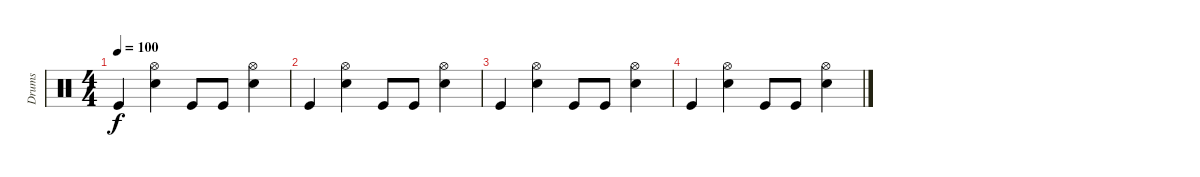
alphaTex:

\track ("Drums" "Drums") {instrument percussion}
\staff {score}
\articulation defaults
\ts (4 4)
\tempo 100
\clef neutral
\ks c "Kick (hit)".4{dy f}
("Hi-Hat (open)" "Electric Snare (hit)").4 "Kick (hit)".8 "Kick (hit)".8 ("Hi-Hat (open)" "Electric Snare (hit)").4 |
"Kick (hit)".4 ("Hi-Hat (open)" "Electric Snare (hit)").4 "Kick (hit)".8 "Kick (hit)".8 ("Hi-Hat (open)" "Electric Snare (hit)").4 |
"Kick (hit)".4 ("Hi-Hat (open)" "Electric Snare (hit)").4 "Kick (hit)".8 "Kick (hit)".8 ("Hi-Hat (open)" "Electric Snare (hit)").4 |
"Kick (hit)".4 ("Hi-Hat (open)" "Electric Snare (hit)").4 "Kick (hit)".8 "Kick (hit)".8 ("Hi-Hat (open)" "Electric Snare (hit)").4
